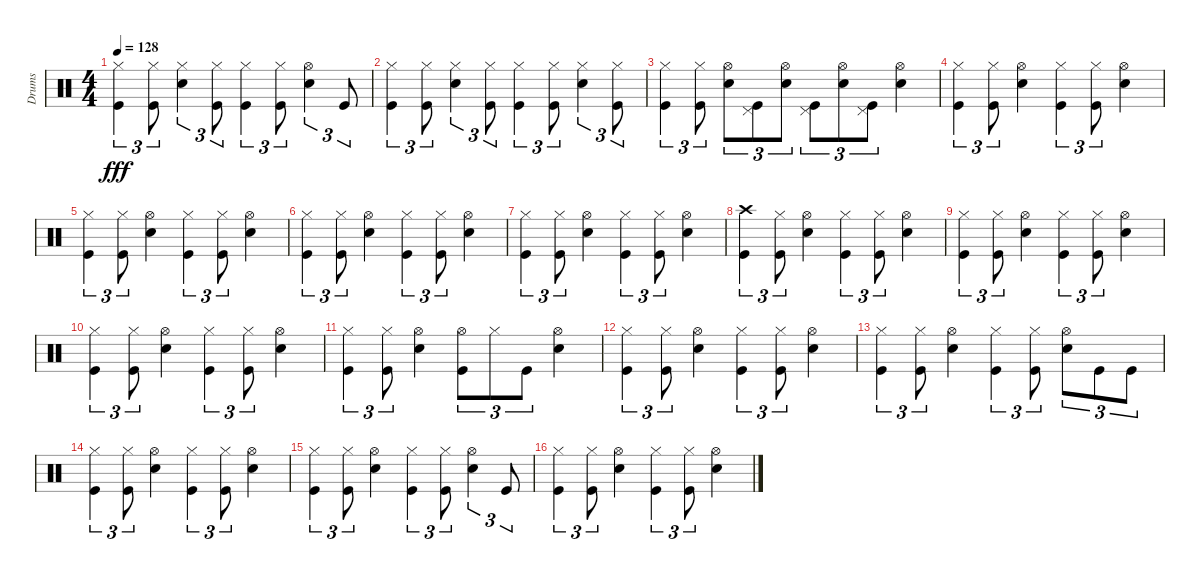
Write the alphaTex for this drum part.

\track ("Drums" "Drums") {instrument percussion}
\staff {score}
\articulation defaults
\ts (4 4)
\tempo 128
\clef neutral
\ks c
("Hi-Hat (closed)" "Kick (hit)").4{tu (3 2) dy fff} ("Hi-Hat (closed)" "Kick (hit)").8{tu (3 2)} ("Hi-Hat (closed)" "Snare (hit) 2").4{tu (3 2)} ("Hi-Hat (closed)" "Kick (hit)").8{tu (3 2)} ("Hi-Hat (closed)" "Kick (hit)").4{tu (3 2)} ("Hi-Hat (closed)" "Kick (hit)").8{tu (3 2)} ("Hi-Hat (open)" "Snare (hit) 2").4{tu (3 2)} "Kick (hit)".8{tu (3 2)} |
("Hi-Hat (closed)" "Kick (hit)").4{tu (3 2)} ("Hi-Hat (closed)" "Kick (hit)").8{tu (3 2)} ("Hi-Hat (closed)" "Snare (hit) 2").4{tu (3 2)} ("Hi-Hat (closed)" "Kick (hit)").8{tu (3 2)} ("Hi-Hat (closed)" "Kick (hit)").4{tu (3 2)} ("Hi-Hat (closed)" "Kick (hit)").8{tu (3 2)} ("Hi-Hat (closed)" "Snare (hit) 2").4{tu (3 2)} ("Hi-Hat (closed)" "Kick (hit)").8{tu (3 2)} |
("Hi-Hat (closed)" "Kick (hit)").4{tu (3 2)} ("Hi-Hat (closed)" "Kick (hit)").8{tu (3 2)} ("Hi-Hat (open)" "Snare (hit) 2").8{tu (3 2)} ("Pedal Hi-Hat (hit)" "Kick (hit)").8{tu (3 2)} ("Hi-Hat (open)" "Snare (hit) 2").8{tu (3 2)} ("Pedal Hi-Hat (hit)" "Kick (hit)").8{tu (3 2)} ("Hi-Hat (open)" "Snare (hit) 2").8{tu (3 2)} ("Pedal Hi-Hat (hit)" "Kick (hit)").8{tu (3 2)} ("Hi-Hat (open)" "Snare (hit) 2").4 |
("Hi-Hat (closed)" "Kick (hit)").4{tu (3 2)} ("Hi-Hat (closed)" "Kick (hit)").8{tu (3 2)} ("Hi-Hat (open)" "Snare (hit) 2").4 ("Hi-Hat (closed)" "Kick (hit)").4{tu (3 2)} ("Hi-Hat (closed)" "Kick (hit)").8{tu (3 2)} ("Hi-Hat (open)" "Snare (hit) 2").4 |
("Hi-Hat (closed)" "Kick (hit)").4{tu (3 2)} ("Hi-Hat (closed)" "Kick (hit)").8{tu (3 2)} ("Hi-Hat (open)" "Snare (hit) 2").4 ("Hi-Hat (closed)" "Kick (hit)").4{tu (3 2)} ("Hi-Hat (closed)" "Kick (hit)").8{tu (3 2)} ("Hi-Hat (open)" "Snare (hit) 2").4 |
("Hi-Hat (closed)" "Kick (hit)").4{tu (3 2)} ("Hi-Hat (closed)" "Kick (hit)").8{tu (3 2)} ("Hi-Hat (open)" "Snare (hit) 2").4 ("Hi-Hat (closed)" "Kick (hit)").4{tu (3 2)} ("Hi-Hat (closed)" "Kick (hit)").8{tu (3 2)} ("Hi-Hat (open)" "Snare (hit) 2").4 |
("Hi-Hat (closed)" "Kick (hit)").4{tu (3 2)} ("Hi-Hat (closed)" "Kick (hit)").8{tu (3 2)} ("Hi-Hat (open)" "Snare (hit) 2").4 ("Hi-Hat (closed)" "Kick (hit)").4{tu (3 2)} ("Hi-Hat (closed)" "Kick (hit)").8{tu (3 2)} ("Hi-Hat (open)" "Snare (hit) 2").4 |
("Crash high (hit)" "Kick (hit)").4{tu (3 2)} ("Hi-Hat (closed)" "Kick (hit)").8{tu (3 2)} ("Hi-Hat (open)" "Snare (hit) 2").4 ("Hi-Hat (closed)" "Kick (hit)").4{tu (3 2)} ("Hi-Hat (closed)" "Kick (hit)").8{tu (3 2)} ("Hi-Hat (open)" "Snare (hit) 2").4 |
("Hi-Hat (closed)" "Kick (hit)").4{tu (3 2)} ("Hi-Hat (closed)" "Kick (hit)").8{tu (3 2)} ("Hi-Hat (open)" "Snare (hit) 2").4 ("Hi-Hat (closed)" "Kick (hit)").4{tu (3 2)} ("Hi-Hat (closed)" "Kick (hit)").8{tu (3 2)} ("Hi-Hat (open)" "Snare (hit) 2").4 |
("Hi-Hat (closed)" "Kick (hit)").4{tu (3 2)} ("Hi-Hat (closed)" "Kick (hit)").8{tu (3 2)} ("Hi-Hat (open)" "Snare (hit) 2").4 ("Hi-Hat (closed)" "Kick (hit)").4{tu (3 2)} ("Hi-Hat (closed)" "Kick (hit)").8{tu (3 2)} ("Hi-Hat (open)" "Snare (hit) 2").4 |
("Hi-Hat (closed)" "Kick (hit)").4{tu (3 2)} ("Hi-Hat (closed)" "Kick (hit)").8{tu (3 2)} ("Hi-Hat (open)" "Snare (hit) 2").4 ("Hi-Hat (open)" "Kick (hit)").8{tu (3 2)} "Hi-Hat (closed)".8{tu (3 2)} "Kick (hit)".8{tu (3 2)} ("Hi-Hat (open)" "Snare (hit) 2").4 |
("Hi-Hat (closed)" "Kick (hit)").4{tu (3 2)} ("Hi-Hat (closed)" "Kick (hit)").8{tu (3 2)} ("Hi-Hat (open)" "Snare (hit) 2").4 ("Hi-Hat (closed)" "Kick (hit)").4{tu (3 2)} ("Hi-Hat (closed)" "Kick (hit)").8{tu (3 2)} ("Hi-Hat (open)" "Snare (hit) 2").4 |
("Hi-Hat (closed)" "Kick (hit)").4{tu (3 2)} ("Hi-Hat (closed)" "Kick (hit)").8{tu (3 2)} ("Hi-Hat (open)" "Snare (hit) 2").4 ("Hi-Hat (closed)" "Kick (hit)").4{tu (3 2)} ("Hi-Hat (closed)" "Kick (hit)").8{tu (3 2)} ("Hi-Hat (open)" "Snare (hit) 2").8{tu (3 2)} "Kick (hit)".8{tu (3 2)} "Kick (hit)".8{tu (3 2)} |
("Hi-Hat (closed)" "Kick (hit)").4{tu (3 2)} ("Hi-Hat (closed)" "Kick (hit)").8{tu (3 2)} ("Hi-Hat (open)" "Snare (hit) 2").4 ("Hi-Hat (closed)" "Kick (hit)").4{tu (3 2)} ("Hi-Hat (closed)" "Kick (hit)").8{tu (3 2)} ("Hi-Hat (open)" "Snare (hit) 2").4 |
("Hi-Hat (closed)" "Kick (hit)").4{tu (3 2)} ("Hi-Hat (closed)" "Kick (hit)").8{tu (3 2)} ("Hi-Hat (open)" "Snare (hit) 2").4 ("Hi-Hat (closed)" "Kick (hit)").4{tu (3 2)} ("Hi-Hat (closed)" "Kick (hit)").8{tu (3 2)} ("Hi-Hat (open)" "Snare (hit) 2").4{tu (3 2)} "Kick (hit)".8{tu (3 2)} |
("Hi-Hat (closed)" "Kick (hit)").4{tu (3 2)} ("Hi-Hat (closed)" "Kick (hit)").8{tu (3 2)} ("Hi-Hat (open)" "Snare (hit) 2").4 ("Hi-Hat (closed)" "Kick (hit)").4{tu (3 2)} ("Hi-Hat (closed)" "Kick (hit)").8{tu (3 2)} ("Hi-Hat (open)" "Snare (hit) 2").4
